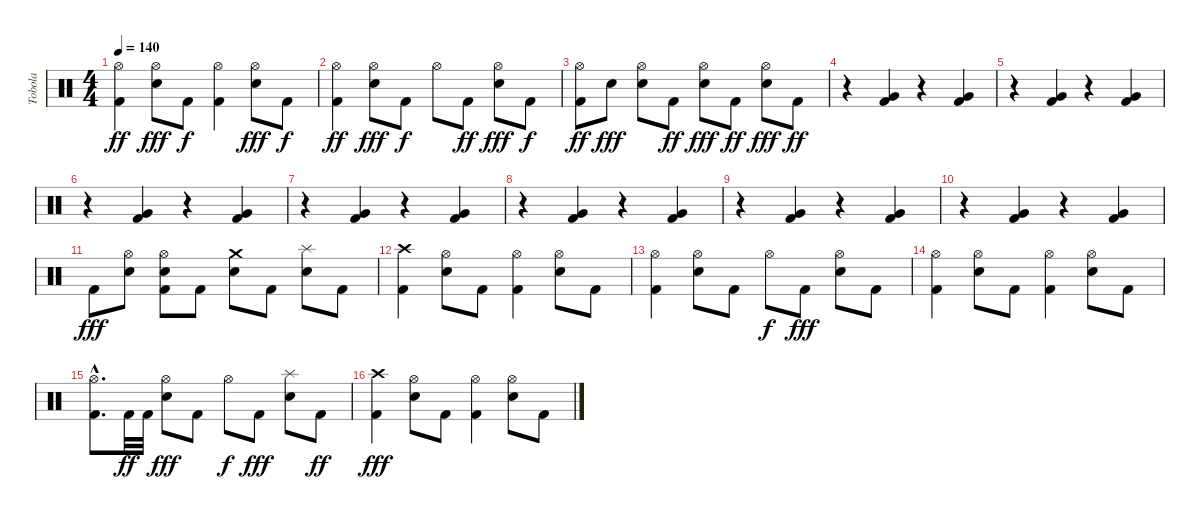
\track ("Tobola" "Tobola") {instrument percussion}
\staff {score}
\articulation defaults
\ts (4 4)
\tempo 140
\clef neutral
\ks c
("Hi-Hat (open)" "Kick (hit) 2").4{dy ff} ("Hi-Hat (open)" "Snare (hit) 2").8{dy fff} "Kick (hit) 2".8{dy f} ("Hi-Hat (open)" "Kick (hit) 2").4 ("Hi-Hat (open)" "Snare (hit) 2").8{dy fff} "Kick (hit) 2".8{dy f} |
("Hi-Hat (open)" "Kick (hit) 2").4{dy ff} ("Hi-Hat (open)" "Snare (hit) 2").8{dy fff} "Kick (hit) 2".8{dy f} "Hi-Hat (open)".8 "Kick (hit) 2".8{dy ff} ("Hi-Hat (open)" "Snare (hit) 2").8{dy fff} "Kick (hit) 2".8{dy f} |
("Hi-Hat (open)" "Kick (hit) 2").8{dy ff} "Snare (hit) 2".8{dy fff} ("Hi-Hat (open)" "Snare (hit) 2").8 "Kick (hit) 2".8{dy ff} ("Hi-Hat (open)" "Snare (hit) 2").8{dy fff} "Kick (hit) 2".8{dy ff} ("Hi-Hat (open)" "Snare (hit) 2").8{dy fff} "Kick (hit) 2".8{dy ff} |
r.4 ("Very Low Tom (hit)" "Kick (hit) 2").4 r.4 ("Very Low Tom (hit)" "Kick (hit) 2").4 |
r.4 ("Very Low Tom (hit)" "Kick (hit) 2").4 r.4 ("Very Low Tom (hit)" "Kick (hit) 2").4 |
r.4 ("Very Low Tom (hit)" "Kick (hit) 2").4 r.4 ("Very Low Tom (hit)" "Kick (hit) 2").4 |
r.4 ("Very Low Tom (hit)" "Kick (hit) 2").4 r.4 ("Very Low Tom (hit)" "Kick (hit) 2").4 |
r.4 ("Very Low Tom (hit)" "Kick (hit) 2").4 r.4 ("Very Low Tom (hit)" "Kick (hit) 2").4 |
r.4 ("Very Low Tom (hit)" "Kick (hit) 2").4 r.4 ("Very Low Tom (hit)" "Kick (hit) 2").4 |
r.4 ("Very Low Tom (hit)" "Kick (hit) 2").4 r.4 ("Very Low Tom (hit)" "Kick (hit) 2").4 |
"Kick (hit) 2".8{dy fff} ("Hi-Hat (open)" "Snare (hit) 2").8 ("Hi-Hat (open)" "Snare (hit) 2" "Kick (hit) 2").8 "Kick (hit) 2".8 ("Crash medium (hit)" "Snare (hit) 2").8 "Kick (hit) 2".8 ("Splash (hit)" "Snare (hit) 2").8 "Kick (hit) 2".8 |
("Crash high (hit)" "Kick (hit) 2").4 ("Hi-Hat (open)" "Snare (hit) 2").8 "Kick (hit) 2".8 ("Hi-Hat (open)" "Kick (hit) 2").4 ("Hi-Hat (open)" "Snare (hit) 2").8 "Kick (hit) 2".8 |
("Hi-Hat (open)" "Kick (hit) 2").4 ("Hi-Hat (open)" "Snare (hit) 2").8 "Kick (hit) 2".8 "Hi-Hat (open)".8{dy f} "Kick (hit) 2".8{dy fff} ("Hi-Hat (open)" "Snare (hit) 2").8 "Kick (hit) 2".8 |
("Hi-Hat (open)" "Kick (hit) 2").4 ("Hi-Hat (open)" "Snare (hit) 2").8 "Kick (hit) 2".8 ("Hi-Hat (open)" "Kick (hit) 2").4 ("Hi-Hat (open)" "Snare (hit) 2").8 "Kick (hit) 2".8 |
("Hi-Hat (open)"{hac} "Kick (hit) 2"{hac}).8{d} "Kick (hit) 2".32{dy ff} "Kick (hit) 2".32 ("Hi-Hat (open)" "Snare (hit) 2").8{dy fff} "Kick (hit) 2".8 "Hi-Hat (open)".8{dy f} "Kick (hit) 2".8{dy fff} ("Splash (hit)" "Snare (hit) 2").8 "Kick (hit) 2".8{dy ff} |
("Crash high (hit)" "Kick (hit) 2").4{dy fff} ("Hi-Hat (open)" "Snare (hit) 2").8 "Kick (hit) 2".8 ("Hi-Hat (open)" "Kick (hit) 2").4 ("Hi-Hat (open)" "Snare (hit) 2").8 "Kick (hit) 2".8
